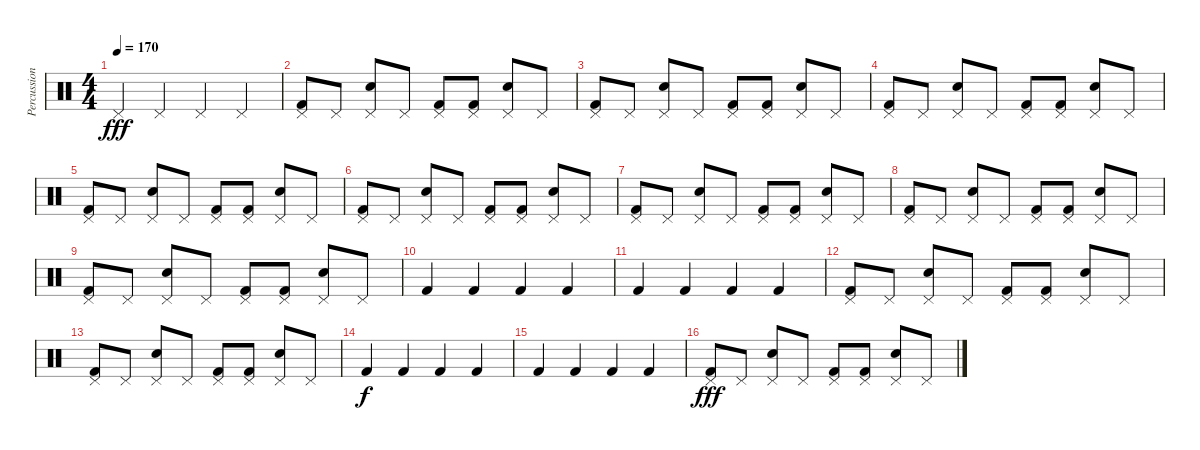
\track ("Percussion" "Percussion") {instrument percussion}
\staff {score}
\articulation defaults
\ts (4 4)
\tempo 170
\clef neutral
\ks c "Pedal Hi-Hat (hit)".4{dy fff} "Pedal Hi-Hat (hit)".4 "Pedal Hi-Hat (hit)".4 "Pedal Hi-Hat (hit)".4
|
("Pedal Hi-Hat (hit)" "Kick (hit) 2").8 "Pedal Hi-Hat (hit)".8 ("Pedal Hi-Hat (hit)" "Snare (hit) 2").8 "Pedal Hi-Hat (hit)".8 ("Pedal Hi-Hat (hit)" "Kick (hit) 2").8 ("Pedal Hi-Hat (hit)" "Kick (hit) 2").8 ("Pedal Hi-Hat (hit)" "Snare (hit) 2").8 "Pedal Hi-Hat (hit)".8 |
("Pedal Hi-Hat (hit)" "Kick (hit) 2").8 "Pedal Hi-Hat (hit)".8 ("Pedal Hi-Hat (hit)" "Snare (hit) 2").8 "Pedal Hi-Hat (hit)".8 ("Pedal Hi-Hat (hit)" "Kick (hit) 2").8 ("Pedal Hi-Hat (hit)" "Kick (hit) 2").8 ("Pedal Hi-Hat (hit)" "Snare (hit) 2").8 "Pedal Hi-Hat (hit)".8 |
("Pedal Hi-Hat (hit)" "Kick (hit) 2").8 "Pedal Hi-Hat (hit)".8 ("Pedal Hi-Hat (hit)" "Snare (hit) 2").8 "Pedal Hi-Hat (hit)".8 ("Pedal Hi-Hat (hit)" "Kick (hit) 2").8 ("Pedal Hi-Hat (hit)" "Kick (hit) 2").8 ("Pedal Hi-Hat (hit)" "Snare (hit) 2").8 "Pedal Hi-Hat (hit)".8 |
("Pedal Hi-Hat (hit)" "Kick (hit) 2").8 "Pedal Hi-Hat (hit)".8 ("Pedal Hi-Hat (hit)" "Snare (hit) 2").8 "Pedal Hi-Hat (hit)".8 ("Pedal Hi-Hat (hit)" "Kick (hit) 2").8 ("Pedal Hi-Hat (hit)" "Kick (hit) 2").8 ("Pedal Hi-Hat (hit)" "Snare (hit) 2").8 "Pedal Hi-Hat (hit)".8 |
("Pedal Hi-Hat (hit)" "Kick (hit) 2").8 "Pedal Hi-Hat (hit)".8 ("Pedal Hi-Hat (hit)" "Snare (hit) 2").8 "Pedal Hi-Hat (hit)".8 ("Pedal Hi-Hat (hit)" "Kick (hit) 2").8 ("Pedal Hi-Hat (hit)" "Kick (hit) 2").8 ("Pedal Hi-Hat (hit)" "Snare (hit) 2").8 "Pedal Hi-Hat (hit)".8 |
("Pedal Hi-Hat (hit)" "Kick (hit) 2").8 "Pedal Hi-Hat (hit)".8 ("Pedal Hi-Hat (hit)" "Snare (hit) 2").8 "Pedal Hi-Hat (hit)".8 ("Pedal Hi-Hat (hit)" "Kick (hit) 2").8 ("Pedal Hi-Hat (hit)" "Kick (hit) 2").8 ("Pedal Hi-Hat (hit)" "Snare (hit) 2").8 "Pedal Hi-Hat (hit)".8 |
("Pedal Hi-Hat (hit)" "Kick (hit) 2").8 "Pedal Hi-Hat (hit)".8 ("Pedal Hi-Hat (hit)" "Snare (hit) 2").8 "Pedal Hi-Hat (hit)".8 ("Pedal Hi-Hat (hit)" "Kick (hit) 2").8 ("Pedal Hi-Hat (hit)" "Kick (hit) 2").8 ("Pedal Hi-Hat (hit)" "Snare (hit) 2").8 "Pedal Hi-Hat (hit)".8 |
("Pedal Hi-Hat (hit)" "Kick (hit) 2").8 "Pedal Hi-Hat (hit)".8 ("Pedal Hi-Hat (hit)" "Snare (hit) 2").8 "Pedal Hi-Hat (hit)".8 ("Pedal Hi-Hat (hit)" "Kick (hit) 2").8 ("Pedal Hi-Hat (hit)" "Kick (hit) 2").8 ("Pedal Hi-Hat (hit)" "Snare (hit) 2").8 "Pedal Hi-Hat (hit)".8 |
"Kick (hit) 2".4 "Kick (hit) 2".4 "Kick (hit) 2".4 "Kick (hit) 2".4 |
"Kick (hit) 2".4 "Kick (hit) 2".4 "Kick (hit) 2".4 "Kick (hit) 2".4 |
("Pedal Hi-Hat (hit)" "Kick (hit) 2").8 "Pedal Hi-Hat (hit)".8 ("Pedal Hi-Hat (hit)" "Snare (hit) 2").8 "Pedal Hi-Hat (hit)".8 ("Pedal Hi-Hat (hit)" "Kick (hit) 2").8 ("Pedal Hi-Hat (hit)" "Kick (hit) 2").8 ("Pedal Hi-Hat (hit)" "Snare (hit) 2").8 "Pedal Hi-Hat (hit)".8 |
("Pedal Hi-Hat (hit)" "Kick (hit) 2").8 "Pedal Hi-Hat (hit)".8 ("Pedal Hi-Hat (hit)" "Snare (hit) 2").8 "Pedal Hi-Hat (hit)".8 ("Pedal Hi-Hat (hit)" "Kick (hit) 2").8 ("Pedal Hi-Hat (hit)" "Kick (hit) 2").8 ("Pedal Hi-Hat (hit)" "Snare (hit) 2").8 "Pedal Hi-Hat (hit)".8 |
"Kick (hit) 2".4{dy f} "Kick (hit) 2".4 "Kick (hit) 2".4 "Kick (hit) 2".4 |
"Kick (hit) 2".4 "Kick (hit) 2".4 "Kick (hit) 2".4 "Kick (hit) 2".4 |
("Pedal Hi-Hat (hit)" "Kick (hit) 2").8{dy fff} "Pedal Hi-Hat (hit)".8 ("Pedal Hi-Hat (hit)" "Snare (hit) 2").8 "Pedal Hi-Hat (hit)".8 ("Pedal Hi-Hat (hit)" "Kick (hit) 2").8 ("Pedal Hi-Hat (hit)" "Kick (hit) 2").8 ("Pedal Hi-Hat (hit)" "Snare (hit) 2").8 "Pedal Hi-Hat (hit)".8
